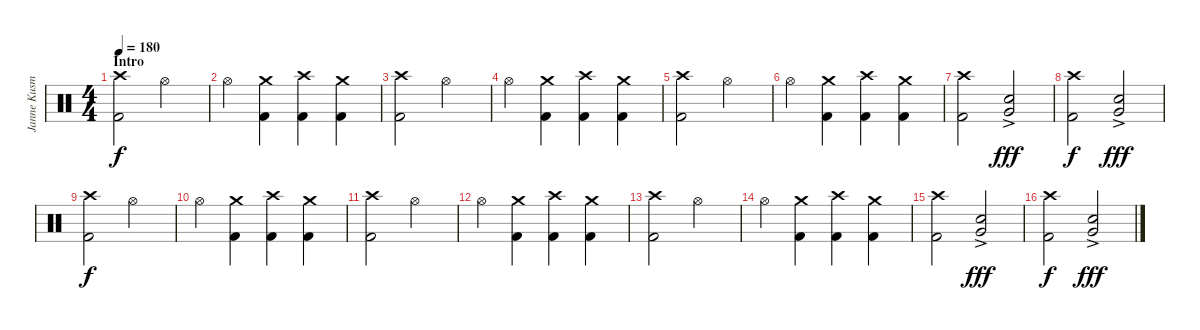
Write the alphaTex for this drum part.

\track ("Janne Kusmin - Drums" "Janne Kusm") {instrument percussion}
\staff {score}
\articulation defaults
\ts (4 4)
\section ("" "Intro")
\tempo 180
\clef neutral
\ks c
("Crash high (hit)" "Kick (hit) 2").2{dy f} "Hi-Hat (open)".2 |
"Hi-Hat (open)".4 ("Crash medium (hit)" "Kick (hit) 2").4 ("Crash high (hit)" "Kick (hit) 2").4 ("Crash medium (hit)" "Kick (hit) 2").4 |
("Crash high (hit)" "Kick (hit) 2").2 "Hi-Hat (open)".2 |
"Hi-Hat (open)".4 ("Crash medium (hit)" "Kick (hit) 2").4 ("Crash high (hit)" "Kick (hit) 2").4 ("Crash medium (hit)" "Kick (hit) 2").4 |
("Crash high (hit)" "Kick (hit) 2").2 "Hi-Hat (open)".2 |
"Hi-Hat (open)".4 ("Crash medium (hit)" "Kick (hit) 2").4 ("Crash high (hit)" "Kick (hit) 2").4 ("Crash medium (hit)" "Kick (hit) 2").4 |
("Crash high (hit)" "Kick (hit) 2").2 ("Very Low Tom (hit)"{ac} "Electric Snare (hit)").2{dy fff} |
("Crash high (hit)" "Kick (hit) 2").2{dy f} ("Very Low Tom (hit)"{ac} "Electric Snare (hit)").2{dy fff} |
("Crash high (hit)" "Kick (hit) 2").2{dy f} "Hi-Hat (open)".2 |
"Hi-Hat (open)".4 ("Crash medium (hit)" "Kick (hit) 2").4 ("Crash high (hit)" "Kick (hit) 2").4 ("Crash medium (hit)" "Kick (hit) 2").4 |
("Crash high (hit)" "Kick (hit) 2").2 "Hi-Hat (open)".2 |
"Hi-Hat (open)".4 ("Crash medium (hit)" "Kick (hit) 2").4 ("Crash high (hit)" "Kick (hit) 2").4 ("Crash medium (hit)" "Kick (hit) 2").4 |
("Crash high (hit)" "Kick (hit) 2").2 "Hi-Hat (open)".2 |
"Hi-Hat (open)".4 ("Crash medium (hit)" "Kick (hit) 2").4 ("Crash high (hit)" "Kick (hit) 2").4 ("Crash medium (hit)" "Kick (hit) 2").4 |
("Crash high (hit)" "Kick (hit) 2").2 ("Very Low Tom (hit)"{ac} "Electric Snare (hit)").2{dy fff} |
("Crash high (hit)" "Kick (hit) 2").2{dy f} ("Very Low Tom (hit)"{ac} "Electric Snare (hit)").2{dy fff}
